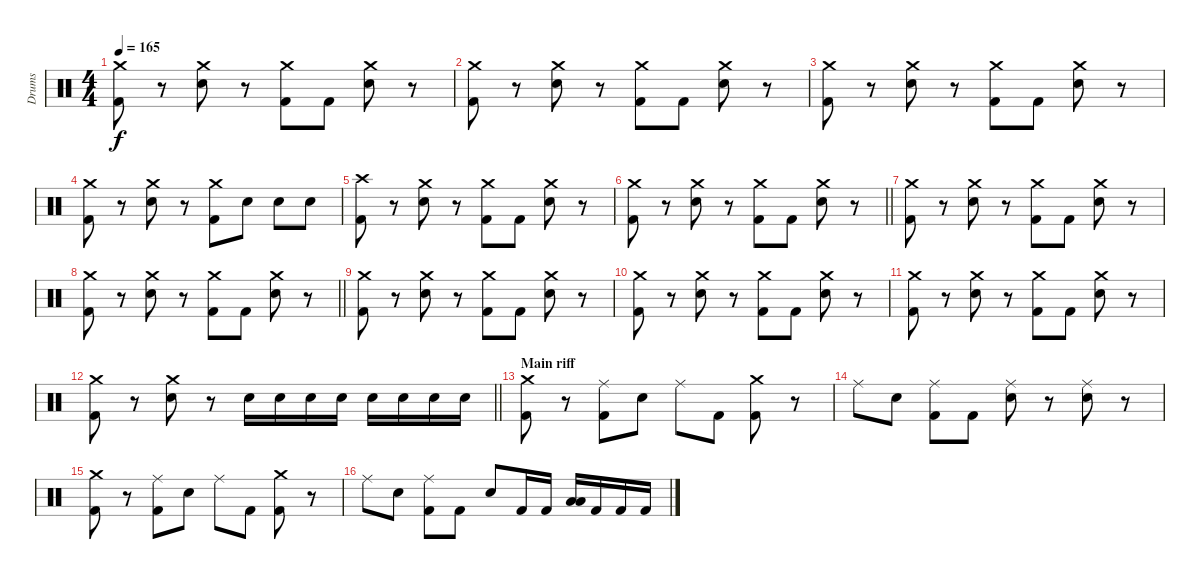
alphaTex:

\track ("Drums" "Drums") {instrument percussion}
\staff {score}
\articulation defaults
\ts (4 4)
\tempo 165
\clef neutral
\ks c
("Crash medium (hit)" "Kick (hit) 2").8{dy f} r.8 ("Crash medium (hit)" "Electric Snare (hit)").8 r.8 ("Crash medium (hit)" "Kick (hit) 2").8 "Kick (hit) 2".8 ("Crash medium (hit)" "Electric Snare (hit)").8 r.8 |
("Crash medium (hit)" "Kick (hit) 2").8 r.8 ("Crash medium (hit)" "Electric Snare (hit)").8 r.8 ("Crash medium (hit)" "Kick (hit) 2").8 "Kick (hit) 2".8 ("Crash medium (hit)" "Electric Snare (hit)").8 r.8 |
("Crash medium (hit)" "Kick (hit) 2").8 r.8 ("Crash medium (hit)" "Electric Snare (hit)").8 r.8 ("Crash medium (hit)" "Kick (hit) 2").8 "Kick (hit) 2".8 ("Crash medium (hit)" "Electric Snare (hit)").8 r.8 |
("Crash medium (hit)" "Kick (hit) 2").8 r.8 ("Crash medium (hit)" "Electric Snare (hit)").8 r.8 ("Crash medium (hit)" "Kick (hit) 2").8 "Electric Snare (hit)".8 "Electric Snare (hit)".8 "Electric Snare (hit)".8 |
("Crash high (hit)" "Kick (hit) 2").8 r.8 ("Crash medium (hit)" "Electric Snare (hit)").8 r.8 ("Crash medium (hit)" "Kick (hit) 2").8 "Kick (hit) 2".8 ("Crash medium (hit)" "Electric Snare (hit)").8 r.8 |
\barLineRight lightlight
("Crash medium (hit)" "Kick (hit) 2").8 r.8 ("Crash medium (hit)" "Electric Snare (hit)").8 r.8 ("Crash medium (hit)" "Kick (hit) 2").8 "Kick (hit) 2".8 ("Crash medium (hit)" "Electric Snare (hit)").8 r.8 |
("Crash medium (hit)" "Kick (hit) 2").8 r.8 ("Crash medium (hit)" "Electric Snare (hit)").8 r.8 ("Crash medium (hit)" "Kick (hit) 2").8 "Kick (hit) 2".8 ("Crash medium (hit)" "Electric Snare (hit)").8 r.8 |
\barLineRight lightlight
("Crash medium (hit)" "Kick (hit) 2").8 r.8 ("Crash medium (hit)" "Electric Snare (hit)").8 r.8 ("Crash medium (hit)" "Kick (hit) 2").8 "Kick (hit) 2".8 ("Crash medium (hit)" "Electric Snare (hit)").8 r.8 |
("Crash medium (hit)" "Kick (hit) 2").8 r.8 ("Crash medium (hit)" "Electric Snare (hit)").8 r.8 ("Crash medium (hit)" "Kick (hit) 2").8 "Kick (hit) 2".8 ("Crash medium (hit)" "Electric Snare (hit)").8 r.8 |
("Crash medium (hit)" "Kick (hit) 2").8 r.8 ("Crash medium (hit)" "Electric Snare (hit)").8 r.8 ("Crash medium (hit)" "Kick (hit) 2").8 "Kick (hit) 2".8 ("Crash medium (hit)" "Electric Snare (hit)").8 r.8 |
("Crash medium (hit)" "Kick (hit) 2").8 r.8 ("Crash medium (hit)" "Electric Snare (hit)").8 r.8 ("Crash medium (hit)" "Kick (hit) 2").8 "Kick (hit) 2".8 ("Crash medium (hit)" "Electric Snare (hit)").8 r.8 |
\barLineRight lightlight
("Crash medium (hit)" "Kick (hit) 2").8 r.8 ("Crash medium (hit)" "Electric Snare (hit)").8 r.8 "Electric Snare (hit)".16 "Electric Snare (hit)".16 "Electric Snare (hit)".16 "Electric Snare (hit)".16 "Electric Snare (hit)".16 "Electric Snare (hit)".16 "Electric Snare (hit)".16 "Electric Snare (hit)".16 |
\section ("" "Main riff")
("Crash medium (hit)" "Kick (hit) 2").8 r.8 ("Ride (middle)" "Kick (hit) 2").8 "Electric Snare (hit)".8 "Ride (middle)".8 "Kick (hit) 2".8 ("Crash medium (hit)" "Kick (hit) 2").8 r.8 |
"Ride (middle)".8 "Electric Snare (hit)".8 ("Ride (middle)" "Kick (hit) 2").8 "Kick (hit) 2".8 ("Ride (middle)" "Electric Snare (hit)").8 r.8 ("Ride (middle)" "Electric Snare (hit)").8 r.8 |
("Crash medium (hit)" "Kick (hit) 2").8 r.8 ("Ride (middle)" "Kick (hit) 2").8 "Electric Snare (hit)".8 "Ride (middle)".8 "Kick (hit) 2".8 ("Crash medium (hit)" "Kick (hit) 2").8 r.8 |
"Ride (middle)".8 "Electric Snare (hit)".8 ("Ride (middle)" "Kick (hit) 2").8 "Kick (hit) 2".8 "Electric Snare (hit)".8 "Kick (hit) 2".16 "Kick (hit) 2".16 ("Low Tom (hit)" "Low Tom (hit)").16 "Kick (hit) 2".16 "Kick (hit) 2".16 "Kick (hit) 2".16
